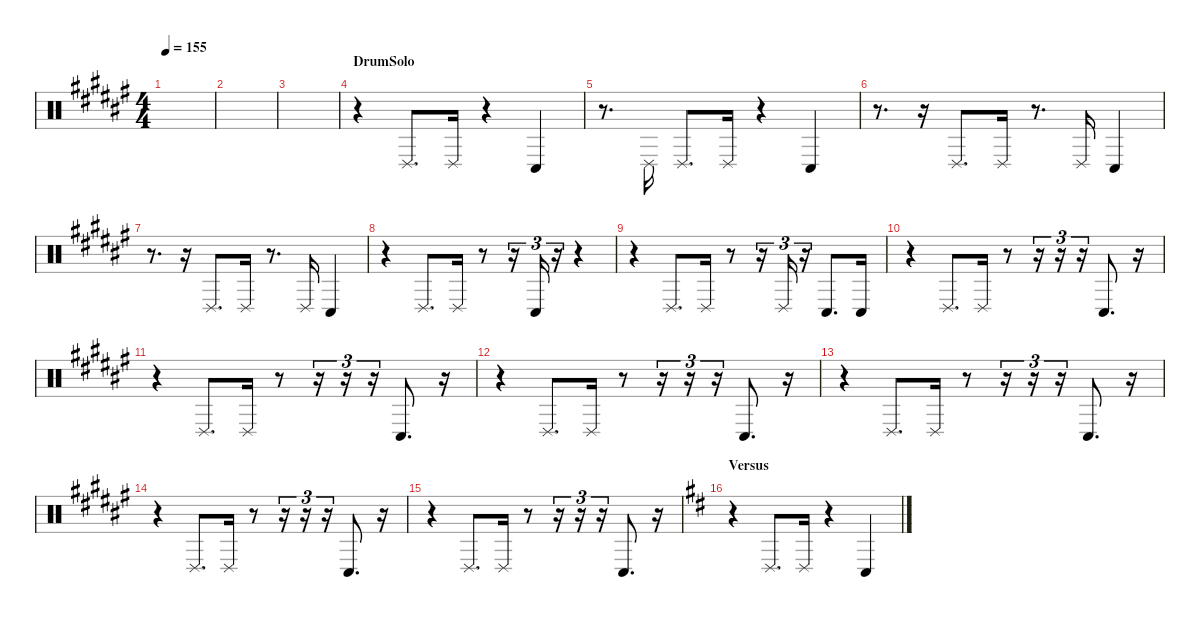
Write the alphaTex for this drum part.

\hideDynamics
\bracketExtendMode nobrackets
\singleTrackTrackNamePolicy hidden
\multiTrackTrackNamePolicy hidden
\otherSystemsTrackNameOrientation horizontal
\track ("Bongos N Congas" "conbon") {instrument percussion}
\staff {score}
\articulation defaults
\ts (4 4)
\tempo 155
\clef neutral
\scale
0.333333
\ks f#
|
\scale
0.333333 |
\scale
0.333333 |
\section ("" "DrumSolo")
\scale
0.333333 r.4{beam Down} "Conga low (slap)"{acc forcenatural}.8{d beam Up} "Conga low (slap)"{acc forcenatural}.16{beam Up} r.4{beam Up} "Conga low (hit)"{acc forcenatural}.4{beam Up} |
\scale
0.333333 r.8{d beam Down} "Conga low (slap)"{acc forcenatural}.16{beam Up} "Conga low (slap)"{acc forcenatural}.8{d beam Up} "Conga low (slap)"{acc forcenatural}.16{beam Up} r.4{beam Up} "Conga low (hit)"{acc forcenatural}.4{beam Up} |
r.8{d beam Down} r.16{beam Down} "Conga low (slap)"{acc forcenatural}.8{d beam Up} "Conga low (slap)"{acc forcenatural}.16{beam Up} r.8{d beam Up} "Conga low (slap)"{acc forcenatural}.16{beam Up} "Conga low (hit)"{acc forcenatural}.4{beam Up} |
r.8{d beam Down} r.16{beam Down} "Conga low (slap)"{acc forcenatural}.8{d beam Up} "Conga low (slap)"{acc forcenatural}.16{beam Up} r.8{d beam Up} "Conga low (slap)"{acc forcenatural}.16{beam Up} "Conga low (hit)"{acc forcenatural}.4{beam Up} |
r.4{beam Down} "Conga low (slap)"{acc forcenatural}.8{d beam Up} "Conga low (slap)"{acc forcenatural}.16{beam Up} r.8{beam Up} r.16{tu (3 2) beam Up} "Conga low (hit)"{acc forcenatural}.16{tu (3 2) beam Up} r.16{tu (3 2) beam Up} r.4{beam Up} |
r.4{beam Down} "Conga low (slap)"{acc forcenatural}.8{d beam Up} "Conga low (slap)"{acc forcenatural}.16{beam Up} r.8{beam Up} r.16{tu (3 2) beam Up} "Conga low (slap)"{acc forcenatural}.16{tu (3 2) beam Up} r.16{tu (3 2) beam Up} "Conga low (hit)"{acc forcenatural}.8{d beam Up} "Conga low (hit)"{acc forcenatural}.16{beam Up} |
r.4{beam Down} "Conga low (slap)"{acc forcenatural}.8{d beam Up} "Conga low (slap)"{acc forcenatural}.16{beam Up} r.8{beam Up} r.16{tu (3 2) beam Up} r.16{tu (3 2) beam Up} r.16{tu (3 2) beam Up} "Conga low (hit)"{acc forcenatural}.8{d beam Up} r.16{beam Up} |
r.4{beam Down} "Conga low (slap)"{acc forcenatural}.8{d beam Up} "Conga low (slap)"{acc forcenatural}.16{beam Up} r.8{beam Up} r.16{tu (3 2) beam Up} r.16{tu (3 2) beam Up} r.16{tu (3 2) beam Up} "Conga low (hit)"{acc forcenatural}.8{d beam Up} r.16{beam Up} |
r.4{beam Down} "Conga low (slap)"{acc forcenatural}.8{d beam Up} "Conga low (slap)"{acc forcenatural}.16{beam Up} r.8{beam Up} r.16{tu (3 2) beam Up} r.16{tu (3 2) beam Up} r.16{tu (3 2) beam Up} "Conga low (hit)"{acc forcenatural}.8{d beam Up} r.16{beam Up} |
r.4{beam Down} "Conga low (slap)"{acc forcenatural}.8{d beam Up} "Conga low (slap)"{acc forcenatural}.16{beam Up} r.8{beam Up} r.16{tu (3 2) beam Up} r.16{tu (3 2) beam Up} r.16{tu (3 2) beam Up} "Conga low (hit)"{acc forcenatural}.8{d beam Up} r.16{beam Up} |
r.4{beam Down} "Conga low (slap)"{acc forcenatural}.8{d beam Up} "Conga low (slap)"{acc forcenatural}.16{beam Up} r.8{beam Up} r.16{tu (3 2) beam Up} r.16{tu (3 2) beam Up} r.16{tu (3 2) beam Up} "Conga low (hit)"{acc forcenatural}.8{d beam Up} r.16{beam Up} |
r.4{beam Down} "Conga low (slap)"{acc forcenatural}.8{d beam Up} "Conga low (slap)"{acc forcenatural}.16{beam Up} r.8{beam Up} r.16{tu (3 2) beam Up} r.16{tu (3 2) beam Up} r.16{tu (3 2) beam Up} "Conga low (hit)"{acc forcenatural}.8{d beam Up} r.16{beam Up} |
\section ("" "Versus")
\ks d
r.4{beam Down} "Conga low (slap)"{acc forcenatural}.8{d beam Up} "Conga low (slap)"{acc forcenatural}.16{beam Up} r.4{beam Up} "Conga low (hit)"{acc forcenatural}.4{beam Up}
